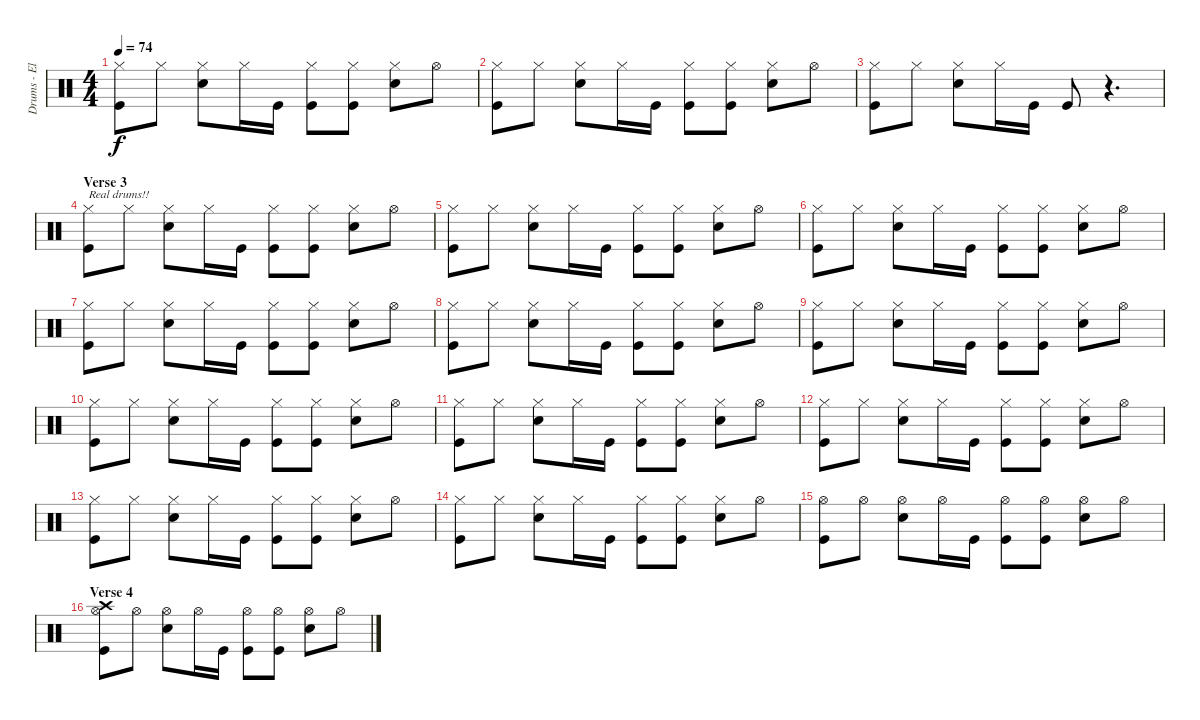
\track ("Drums - Electronic Kit then Real Drums!!" "Drums - El") {instrument percussion}
\staff {score}
\articulation defaults
\ts (4 4)
\tempo 74
\clef neutral
\ks c
("Hi-Hat (closed)" "Kick (hit)").8{dy f} "Hi-Hat (closed)".8 ("Hi-Hat (closed)" "Snare (hit) 2").8 "Hi-Hat (closed)".16 "Kick (hit)".16 ("Hi-Hat (closed)" "Kick (hit)").8 ("Hi-Hat (closed)" "Kick (hit)").8 ("Hi-Hat (closed)" "Snare (hit) 2").8 "Hi-Hat (open)".8 |
("Hi-Hat (closed)" "Kick (hit)").8 "Hi-Hat (closed)".8 ("Hi-Hat (closed)" "Snare (hit) 2").8 "Hi-Hat (closed)".16 "Kick (hit)".16 ("Hi-Hat (closed)" "Kick (hit)").8 ("Hi-Hat (closed)" "Kick (hit)").8 ("Hi-Hat (closed)" "Snare (hit) 2").8 "Hi-Hat (open)".8 |
("Hi-Hat (closed)" "Kick (hit)").8 "Hi-Hat (closed)".8 ("Hi-Hat (closed)" "Snare (hit) 2").8 "Hi-Hat (closed)".16 "Kick (hit)".16 "Kick (hit)".8 r.4{d} |
\section ("" "Verse 3")
("Hi-Hat (closed)" "Kick (hit)").8{txt "Real drums!!"} "Hi-Hat (closed)".8 ("Hi-Hat (closed)" "Snare (hit) 2").8 "Hi-Hat (closed)".16 "Kick (hit)".16 ("Hi-Hat (closed)" "Kick (hit)").8 ("Hi-Hat (closed)" "Kick (hit)").8 ("Hi-Hat (closed)" "Snare (hit) 2").8 "Hi-Hat (open)".8 |
("Hi-Hat (closed)" "Kick (hit)").8 "Hi-Hat (closed)".8 ("Hi-Hat (closed)" "Snare (hit) 2").8 "Hi-Hat (closed)".16 "Kick (hit)".16 ("Hi-Hat (closed)" "Kick (hit)").8 ("Hi-Hat (closed)" "Kick (hit)").8 ("Hi-Hat (closed)" "Snare (hit) 2").8 "Hi-Hat (open)".8 |
("Hi-Hat (closed)" "Kick (hit)").8 "Hi-Hat (closed)".8 ("Hi-Hat (closed)" "Snare (hit) 2").8 "Hi-Hat (closed)".16 "Kick (hit)".16 ("Hi-Hat (closed)" "Kick (hit)").8 ("Hi-Hat (closed)" "Kick (hit)").8 ("Hi-Hat (closed)" "Snare (hit) 2").8 "Hi-Hat (open)".8 |
("Hi-Hat (closed)" "Kick (hit)").8 "Hi-Hat (closed)".8 ("Hi-Hat (closed)" "Snare (hit) 2").8 "Hi-Hat (closed)".16 "Kick (hit)".16 ("Hi-Hat (closed)" "Kick (hit)").8 ("Hi-Hat (closed)" "Kick (hit)").8 ("Hi-Hat (closed)" "Snare (hit) 2").8 "Hi-Hat (open)".8 |
("Hi-Hat (closed)" "Kick (hit)").8 "Hi-Hat (closed)".8 ("Hi-Hat (closed)" "Snare (hit) 2").8 "Hi-Hat (closed)".16 "Kick (hit)".16 ("Hi-Hat (closed)" "Kick (hit)").8 ("Hi-Hat (closed)" "Kick (hit)").8 ("Hi-Hat (closed)" "Snare (hit) 2").8 "Hi-Hat (open)".8 |
("Hi-Hat (closed)" "Kick (hit)").8 "Hi-Hat (closed)".8 ("Hi-Hat (closed)" "Snare (hit) 2").8 "Hi-Hat (closed)".16 "Kick (hit)".16 ("Hi-Hat (closed)" "Kick (hit)").8 ("Hi-Hat (closed)" "Kick (hit)").8 ("Hi-Hat (closed)" "Snare (hit) 2").8 "Hi-Hat (open)".8 |
("Hi-Hat (closed)" "Kick (hit)").8 "Hi-Hat (closed)".8 ("Hi-Hat (closed)" "Snare (hit) 2").8 "Hi-Hat (closed)".16 "Kick (hit)".16 ("Hi-Hat (closed)" "Kick (hit)").8 ("Hi-Hat (closed)" "Kick (hit)").8 ("Hi-Hat (closed)" "Snare (hit) 2").8 "Hi-Hat (open)".8 |
("Hi-Hat (closed)" "Kick (hit)").8 "Hi-Hat (closed)".8 ("Hi-Hat (closed)" "Snare (hit) 2").8 "Hi-Hat (closed)".16 "Kick (hit)".16 ("Hi-Hat (closed)" "Kick (hit)").8 ("Hi-Hat (closed)" "Kick (hit)").8 ("Hi-Hat (closed)" "Snare (hit) 2").8 "Hi-Hat (open)".8 |
("Hi-Hat (closed)" "Kick (hit)").8 "Hi-Hat (closed)".8 ("Hi-Hat (closed)" "Snare (hit) 2").8 "Hi-Hat (closed)".16 "Kick (hit)".16 ("Hi-Hat (closed)" "Kick (hit)").8 ("Hi-Hat (closed)" "Kick (hit)").8 ("Hi-Hat (closed)" "Snare (hit) 2").8 "Hi-Hat (open)".8 |
("Hi-Hat (closed)" "Kick (hit)").8 "Hi-Hat (closed)".8 ("Hi-Hat (closed)" "Snare (hit) 2").8 "Hi-Hat (closed)".16 "Kick (hit)".16 ("Hi-Hat (closed)" "Kick (hit)").8 ("Hi-Hat (closed)" "Kick (hit)").8 ("Hi-Hat (closed)" "Snare (hit) 2").8 "Hi-Hat (open)".8 |
("Hi-Hat (closed)" "Kick (hit)").8 "Hi-Hat (closed)".8 ("Hi-Hat (closed)" "Snare (hit) 2").8 "Hi-Hat (closed)".16 "Kick (hit)".16 ("Hi-Hat (closed)" "Kick (hit)").8 ("Hi-Hat (closed)" "Kick (hit)").8 ("Hi-Hat (closed)" "Snare (hit) 2").8 "Hi-Hat (open)".8 |
("Hi-Hat (open)" "Kick (hit)").8 "Hi-Hat (open)".8 ("Hi-Hat (open)" "Snare (hit) 2").8 "Hi-Hat (open)".16 "Kick (hit)".16 ("Hi-Hat (open)" "Kick (hit)").8 ("Hi-Hat (open)" "Kick (hit)").8 ("Hi-Hat (open)" "Snare (hit) 2").8 "Hi-Hat (open)".8 |
\section ("" "Verse 4")
("Hi-Hat (open)" "Crash high (hit)" "Kick (hit)").8 "Hi-Hat (open)".8 ("Hi-Hat (open)" "Snare (hit) 2").8 "Hi-Hat (open)".16 "Kick (hit)".16 ("Hi-Hat (open)" "Kick (hit)").8 ("Hi-Hat (open)" "Kick (hit)").8 ("Hi-Hat (open)" "Snare (hit) 2").8 "Hi-Hat (open)".8
